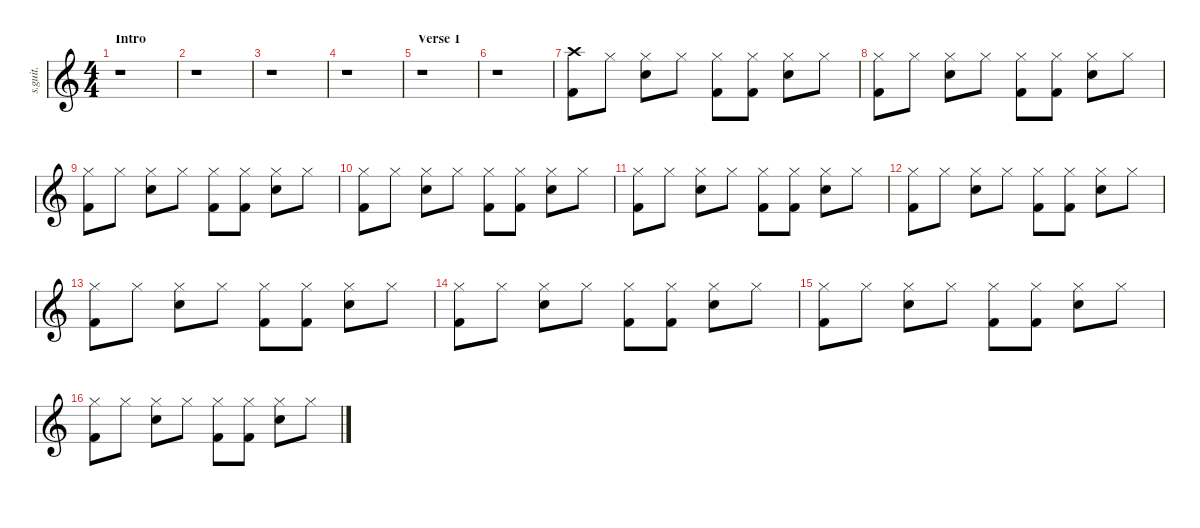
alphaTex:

\defaultSystemsLayout 4
\hideDynamics
\bracketExtendMode nobrackets
\track ("Tre Cool" "s.guit.") {instrument percussion}
\staff {score}
\articulation defaults
\ts (4 4)
\beaming (8 2 2 2 2)
\section ("" "Intro")
\tempo (84 hide)
\clef g2
\ks c
r.1{dy f} |
r.1 |
r.1 |
r.1 |
\section ("" "Verse 1")
r.1 |
r.1 |
("Crash high (hit)" "Kick (hit) 2").8{lyrics (0 "") lyrics (1 "") lyrics (2 "") lyrics (3 "") lyrics (4 "")} "Hi-Hat (closed)".8{lyrics (0 "") lyrics (1 "") lyrics (2 "") lyrics (3 "") lyrics (4 "")} ("Hi-Hat (closed)" "Snare (hit) 2").8{lyrics (0 "") lyrics (1 "") lyrics (2 "") lyrics (3 "") lyrics (4 "")} "Hi-Hat (closed)".8{lyrics (0 "") lyrics (1 "") lyrics (2 "") lyrics (3 "") lyrics (4 "")} ("Hi-Hat (closed)" "Kick (hit) 2").8{lyrics (0 "") lyrics (1 "") lyrics (2 "") lyrics (3 "") lyrics (4 "")} ("Hi-Hat (closed)" "Kick (hit) 2").8{lyrics (0 "") lyrics (1 "") lyrics (2 "") lyrics (3 "") lyrics (4 "")} ("Hi-Hat (closed)" "Snare (hit) 2").8{lyrics (0 "") lyrics (1 "") lyrics (2 "") lyrics (3 "") lyrics (4 "")} "Hi-Hat (closed)".8{lyrics (0 "") lyrics (1 "") lyrics (2 "") lyrics (3 "") lyrics (4 "")} |
("Hi-Hat (closed)" "Kick (hit) 2").8{lyrics (0 "") lyrics (1 "") lyrics (2 "") lyrics (3 "") lyrics (4 "")} "Hi-Hat (closed)".8{lyrics (0 "") lyrics (1 "") lyrics (2 "") lyrics (3 "") lyrics (4 "")} ("Hi-Hat (closed)" "Snare (hit) 2").8{lyrics (0 "") lyrics (1 "") lyrics (2 "") lyrics (3 "") lyrics (4 "")} "Hi-Hat (closed)".8{lyrics (0 "") lyrics (1 "") lyrics (2 "") lyrics (3 "") lyrics (4 "")} ("Hi-Hat (closed)" "Kick (hit) 2").8{lyrics (0 "") lyrics (1 "") lyrics (2 "") lyrics (3 "") lyrics (4 "")} ("Hi-Hat (closed)" "Kick (hit) 2").8{lyrics (0 "") lyrics (1 "") lyrics (2 "") lyrics (3 "") lyrics (4 "")} ("Hi-Hat (closed)" "Snare (hit) 2").8{lyrics (0 "") lyrics (1 "") lyrics (2 "") lyrics (3 "") lyrics (4 "")} "Hi-Hat (closed)".8{lyrics (0 "") lyrics (1 "") lyrics (2 "") lyrics (3 "") lyrics (4 "")} |
("Hi-Hat (closed)" "Kick (hit) 2").8{lyrics (0 "") lyrics (1 "") lyrics (2 "") lyrics (3 "") lyrics (4 "")} "Hi-Hat (closed)".8{lyrics (0 "") lyrics (1 "") lyrics (2 "") lyrics (3 "") lyrics (4 "")} ("Hi-Hat (closed)" "Snare (hit) 2").8{lyrics (0 "") lyrics (1 "") lyrics (2 "") lyrics (3 "") lyrics (4 "")} "Hi-Hat (closed)".8{lyrics (0 "") lyrics (1 "") lyrics (2 "") lyrics (3 "") lyrics (4 "")} ("Hi-Hat (closed)" "Kick (hit) 2").8{lyrics (0 "") lyrics (1 "") lyrics (2 "") lyrics (3 "") lyrics (4 "")} ("Hi-Hat (closed)" "Kick (hit) 2").8{lyrics (0 "") lyrics (1 "") lyrics (2 "") lyrics (3 "") lyrics (4 "")} ("Hi-Hat (closed)" "Snare (hit) 2").8{lyrics (0 "") lyrics (1 "") lyrics (2 "") lyrics (3 "") lyrics (4 "")} "Hi-Hat (closed)".8{lyrics (0 "") lyrics (1 "") lyrics (2 "") lyrics (3 "") lyrics (4 "")} |
("Hi-Hat (closed)" "Kick (hit) 2").8{lyrics (0 "") lyrics (1 "") lyrics (2 "") lyrics (3 "") lyrics (4 "")} "Hi-Hat (closed)".8{lyrics (0 "") lyrics (1 "") lyrics (2 "") lyrics (3 "") lyrics (4 "")} ("Hi-Hat (closed)" "Snare (hit) 2").8{lyrics (0 "") lyrics (1 "") lyrics (2 "") lyrics (3 "") lyrics (4 "")} "Hi-Hat (closed)".8{lyrics (0 "") lyrics (1 "") lyrics (2 "") lyrics (3 "") lyrics (4 "")} ("Hi-Hat (closed)" "Kick (hit) 2").8{lyrics (0 "") lyrics (1 "") lyrics (2 "") lyrics (3 "") lyrics (4 "")} ("Hi-Hat (closed)" "Kick (hit) 2").8{lyrics (0 "") lyrics (1 "") lyrics (2 "") lyrics (3 "") lyrics (4 "")} ("Hi-Hat (closed)" "Snare (hit) 2").8{lyrics (0 "") lyrics (1 "") lyrics (2 "") lyrics (3 "") lyrics (4 "")} "Hi-Hat (closed)".8{lyrics (0 "") lyrics (1 "") lyrics (2 "") lyrics (3 "") lyrics (4 "")} |
("Hi-Hat (closed)" "Kick (hit) 2").8{lyrics (0 "") lyrics (1 "") lyrics (2 "") lyrics (3 "") lyrics (4 "")} "Hi-Hat (closed)".8{lyrics (0 "") lyrics (1 "") lyrics (2 "") lyrics (3 "") lyrics (4 "")} ("Hi-Hat (closed)" "Snare (hit) 2").8{lyrics (0 "") lyrics (1 "") lyrics (2 "") lyrics (3 "") lyrics (4 "")} "Hi-Hat (closed)".8{lyrics (0 "") lyrics (1 "") lyrics (2 "") lyrics (3 "") lyrics (4 "")} ("Hi-Hat (closed)" "Kick (hit) 2").8{lyrics (0 "") lyrics (1 "") lyrics (2 "") lyrics (3 "") lyrics (4 "")} ("Hi-Hat (closed)" "Kick (hit) 2").8{lyrics (0 "") lyrics (1 "") lyrics (2 "") lyrics (3 "") lyrics (4 "")} ("Hi-Hat (closed)" "Snare (hit) 2").8{lyrics (0 "") lyrics (1 "") lyrics (2 "") lyrics (3 "") lyrics (4 "")} "Hi-Hat (closed)".8{lyrics (0 "") lyrics (1 "") lyrics (2 "") lyrics (3 "") lyrics (4 "")} |
("Hi-Hat (closed)" "Kick (hit) 2").8{lyrics (0 "") lyrics (1 "") lyrics (2 "") lyrics (3 "") lyrics (4 "")} "Hi-Hat (closed)".8{lyrics (0 "") lyrics (1 "") lyrics (2 "") lyrics (3 "") lyrics (4 "")} ("Hi-Hat (closed)" "Snare (hit) 2").8{lyrics (0 "") lyrics (1 "") lyrics (2 "") lyrics (3 "") lyrics (4 "")} "Hi-Hat (closed)".8{lyrics (0 "") lyrics (1 "") lyrics (2 "") lyrics (3 "") lyrics (4 "")} ("Hi-Hat (closed)" "Kick (hit) 2").8{lyrics (0 "") lyrics (1 "") lyrics (2 "") lyrics (3 "") lyrics (4 "")} ("Hi-Hat (closed)" "Kick (hit) 2").8{lyrics (0 "") lyrics (1 "") lyrics (2 "") lyrics (3 "") lyrics (4 "")} ("Hi-Hat (closed)" "Snare (hit) 2").8{lyrics (0 "") lyrics (1 "") lyrics (2 "") lyrics (3 "") lyrics (4 "")} "Hi-Hat (closed)".8{lyrics (0 "") lyrics (1 "") lyrics (2 "") lyrics (3 "") lyrics (4 "")} |
("Hi-Hat (closed)" "Kick (hit) 2").8{lyrics (0 "") lyrics (1 "") lyrics (2 "") lyrics (3 "") lyrics (4 "")} "Hi-Hat (closed)".8{lyrics (0 "") lyrics (1 "") lyrics (2 "") lyrics (3 "") lyrics (4 "")} ("Hi-Hat (closed)" "Snare (hit) 2").8{lyrics (0 "") lyrics (1 "") lyrics (2 "") lyrics (3 "") lyrics (4 "")} "Hi-Hat (closed)".8{lyrics (0 "") lyrics (1 "") lyrics (2 "") lyrics (3 "") lyrics (4 "")} ("Hi-Hat (closed)" "Kick (hit) 2").8{lyrics (0 "") lyrics (1 "") lyrics (2 "") lyrics (3 "") lyrics (4 "")} ("Hi-Hat (closed)" "Kick (hit) 2").8{lyrics (0 "") lyrics (1 "") lyrics (2 "") lyrics (3 "") lyrics (4 "")} ("Hi-Hat (closed)" "Snare (hit) 2").8{lyrics (0 "") lyrics (1 "") lyrics (2 "") lyrics (3 "") lyrics (4 "")} "Hi-Hat (closed)".8{lyrics (0 "") lyrics (1 "") lyrics (2 "") lyrics (3 "") lyrics (4 "")} |
("Hi-Hat (closed)" "Kick (hit) 2").8{lyrics (0 "") lyrics (1 "") lyrics (2 "") lyrics (3 "") lyrics (4 "")} "Hi-Hat (closed)".8{lyrics (0 "") lyrics (1 "") lyrics (2 "") lyrics (3 "") lyrics (4 "")} ("Hi-Hat (closed)" "Snare (hit) 2").8{lyrics (0 "") lyrics (1 "") lyrics (2 "") lyrics (3 "") lyrics (4 "")} "Hi-Hat (closed)".8{lyrics (0 "") lyrics (1 "") lyrics (2 "") lyrics (3 "") lyrics (4 "")} ("Hi-Hat (closed)" "Kick (hit) 2").8{lyrics (0 "") lyrics (1 "") lyrics (2 "") lyrics (3 "") lyrics (4 "")} ("Hi-Hat (closed)" "Kick (hit) 2").8{lyrics (0 "") lyrics (1 "") lyrics (2 "") lyrics (3 "") lyrics (4 "")} ("Hi-Hat (closed)" "Snare (hit) 2").8{lyrics (0 "") lyrics (1 "") lyrics (2 "") lyrics (3 "") lyrics (4 "")} "Hi-Hat (closed)".8{lyrics (0 "") lyrics (1 "") lyrics (2 "") lyrics (3 "") lyrics (4 "")} |
("Hi-Hat (closed)" "Kick (hit) 2").8{lyrics (0 "") lyrics (1 "") lyrics (2 "") lyrics (3 "") lyrics (4 "")} "Hi-Hat (closed)".8{lyrics (0 "") lyrics (1 "") lyrics (2 "") lyrics (3 "") lyrics (4 "")} ("Hi-Hat (closed)" "Snare (hit) 2").8{lyrics (0 "") lyrics (1 "") lyrics (2 "") lyrics (3 "") lyrics (4 "")} "Hi-Hat (closed)".8{lyrics (0 "") lyrics (1 "") lyrics (2 "") lyrics (3 "") lyrics (4 "")} ("Hi-Hat (closed)" "Kick (hit) 2").8{lyrics (0 "") lyrics (1 "") lyrics (2 "") lyrics (3 "") lyrics (4 "")} ("Hi-Hat (closed)" "Kick (hit) 2").8{lyrics (0 "") lyrics (1 "") lyrics (2 "") lyrics (3 "") lyrics (4 "")} ("Hi-Hat (closed)" "Snare (hit) 2").8{lyrics (0 "") lyrics (1 "") lyrics (2 "") lyrics (3 "") lyrics (4 "")} "Hi-Hat (closed)".8{lyrics (0 "") lyrics (1 "") lyrics (2 "") lyrics (3 "") lyrics (4 "")} |
("Hi-Hat (closed)" "Kick (hit) 2").8{lyrics (0 "") lyrics (1 "") lyrics (2 "") lyrics (3 "") lyrics (4 "")} "Hi-Hat (closed)".8{lyrics (0 "") lyrics (1 "") lyrics (2 "") lyrics (3 "") lyrics (4 "")} ("Hi-Hat (closed)" "Snare (hit) 2").8{lyrics (0 "") lyrics (1 "") lyrics (2 "") lyrics (3 "") lyrics (4 "")} "Hi-Hat (closed)".8{lyrics (0 "") lyrics (1 "") lyrics (2 "") lyrics (3 "") lyrics (4 "")} ("Hi-Hat (closed)" "Kick (hit) 2").8{lyrics (0 "") lyrics (1 "") lyrics (2 "") lyrics (3 "") lyrics (4 "")} ("Hi-Hat (closed)" "Kick (hit) 2").8{lyrics (0 "") lyrics (1 "") lyrics (2 "") lyrics (3 "") lyrics (4 "")} ("Hi-Hat (closed)" "Snare (hit) 2").8{lyrics (0 "") lyrics (1 "") lyrics (2 "") lyrics (3 "") lyrics (4 "")} "Hi-Hat (closed)".8{lyrics (0 "") lyrics (1 "") lyrics (2 "") lyrics (3 "") lyrics (4 "")}
